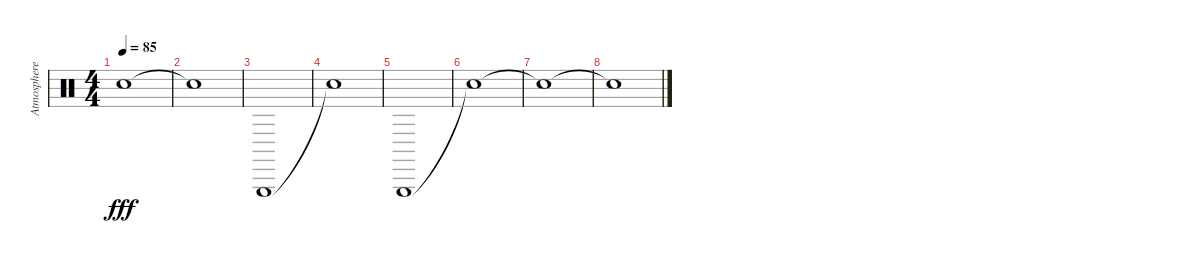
\track ("Atmosphere" "Atmosphere") {instrument percussion}
\staff {score}
\articulation defaults
\ts (4 4)
\tempo 85
\clef neutral
\ks c "Snare (hit)"{t}.1{dy fff}
|
"Snare (hit)"{t}.1 |
"Triangle (hit)".1 |
"Snare (hit)"{t}.1 |
"Triangle (hit)".1 |
"Snare (hit)"{t}.1 |
"Snare (hit)"{t}.1 |
"Snare (hit)"{t}.1
